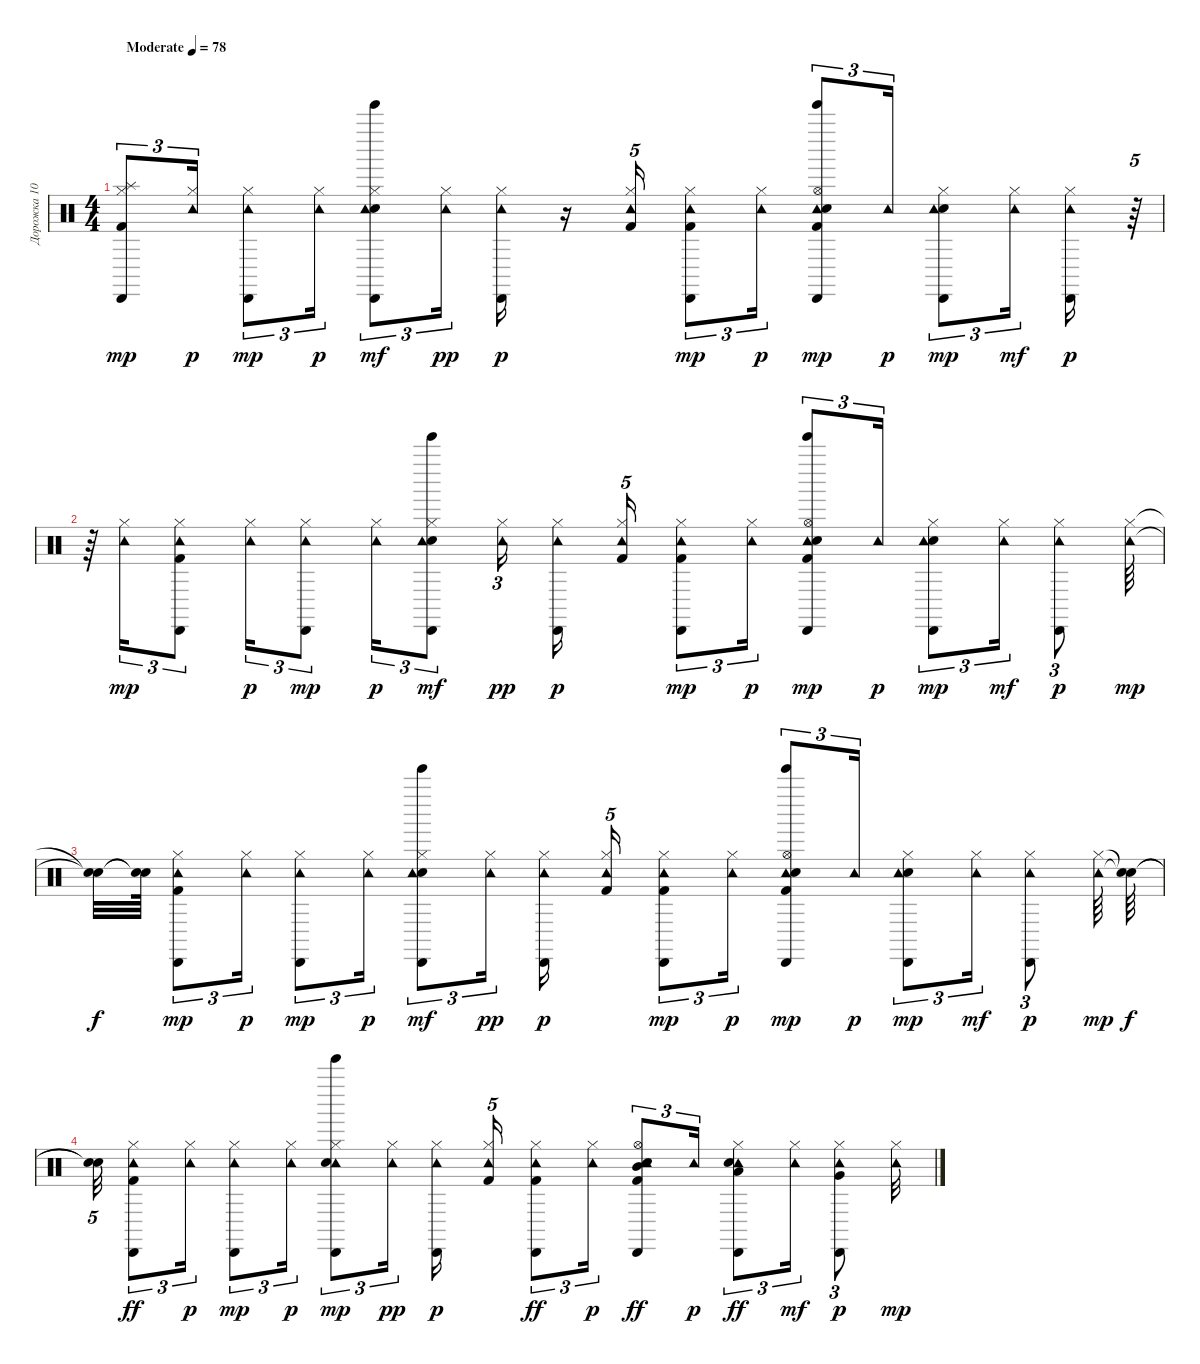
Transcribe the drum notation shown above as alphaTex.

\track ("Дорожка 10" "Дорожка 10") {instrument percussion}
\staff
\articulation defaults
\ts (4 4)
\tempo (78 "Moderate")
\clef neutral
\ks c
("Kick (hit) 2" "Splash (hit)" "Hi-Hat (closed)" "Cabasa (hit)").8{tu (3 2) dy mp} ("Hi-Hat (closed)" "Tambourine (hit)").16{tu (3 2) dy p} ("Hi-Hat (closed)" "Cabasa (hit)" "Tambourine (hit)").8{tu (3 2) dy mp} ("Hi-Hat (closed)" "Tambourine (hit)").16{tu (3 2) dy p} ("Snare (hit) 2" "Hi-Hat (closed)" "Tinkle Bell (hit)" "Cabasa (hit)" "Tambourine (hit)").8{tu (3 2) dy mf} ("Hi-Hat (closed)" "Tambourine (hit)").16{tu (3 2) dy pp} ("Hi-Hat (closed)" "Cabasa (hit)" "Tambourine (hit)").16{dy p} r.16 ("Kick (hit) 2" "Hi-Hat (closed)" "Tambourine (hit)").16{tu (5 4)} ("Kick (hit) 2" "Hi-Hat (closed)" "Cabasa (hit)" "Tambourine (hit)").8{tu (3 2) dy mp} ("Hi-Hat (closed)" "Tambourine (hit)").16{tu (3 2) dy p} ("Kick (hit) 2" "Hi-Hat (open)" "Cabasa (hit)" "Tambourine (hit)" "Electric Snare (hit)" "Tinkle Bell (hit)").8{tu (3 2) dy mp} "Tambourine (hit)".16{tu (3 2) dy p} ("Snare (hit) 2" "Hi-Hat (closed)" "Cabasa (hit)" "Tambourine (hit)").8{tu (3 2) dy mp} ("Hi-Hat (closed)" "Tambourine (hit)").16{tu (3 2) dy mf} ("Hi-Hat (closed)" "Cabasa (hit)" "Tambourine (hit)").16{dy p} r.64{tu (5 4)} |
r.64 ("Hi-Hat (closed)" "Tambourine (hit)").16{tu (3 2) dy mp} ("Hi-Hat (closed)" "Kick (hit) 2" "Cabasa (hit)" "Tambourine (hit)").8{tu (3 2)} ("Hi-Hat (closed)" "Tambourine (hit)").16{tu (3 2) dy p} ("Hi-Hat (closed)" "Cabasa (hit)" "Tambourine (hit)").8{tu (3 2) dy mp} ("Hi-Hat (closed)" "Tambourine (hit)").16{tu (3 2) dy p} ("Hi-Hat (closed)" "Snare (hit) 2" "Tinkle Bell (hit)" "Cabasa (hit)" "Tambourine (hit)").8{tu (3 2) dy mf} ("Hi-Hat (closed)" "Tambourine (hit)").16{tu (3 2) dy pp beam splitsecondary} ("Hi-Hat (closed)" "Cabasa (hit)" "Tambourine (hit)").16{dy p} ("Hi-Hat (closed)" "Kick (hit) 2" "Tambourine (hit)").16{tu (5 4)} ("Hi-Hat (closed)" "Kick (hit) 2" "Cabasa (hit)" "Tambourine (hit)").8{tu (3 2) dy mp} ("Hi-Hat (closed)" "Tambourine (hit)").16{tu (3 2) dy p} ("Kick (hit) 2" "Hi-Hat (open)" "Cabasa (hit)" "Tambourine (hit)" "Electric Snare (hit)" "Tinkle Bell (hit)").8{tu (3 2) dy mp} "Tambourine (hit)".16{tu (3 2) dy p} ("Hi-Hat (closed)" "Snare (hit) 2" "Cabasa (hit)" "Tambourine (hit)").8{tu (3 2) dy mp} ("Hi-Hat (closed)" "Tambourine (hit)").16{tu (3 2) dy mf} ("Hi-Hat (closed)" "Cabasa (hit)" "Tambourine (hit)").8{tu (3 2) dy p} ("Hi-Hat (closed)" "Tambourine (hit)").64{dy mp} |
("Snare (hit)"{t} "Snare (hit)"{t}).32{dy f} ("Snare (hit)"{t} "Snare (hit)"{t}).64 ("Kick (hit) 2" "Hi-Hat (closed)" "Cabasa (hit)" "Tambourine (hit)").8{tu (3 2) dy mp} ("Hi-Hat (closed)" "Tambourine (hit)").16{tu (3 2) dy p} ("Hi-Hat (closed)" "Cabasa (hit)" "Tambourine (hit)").8{tu (3 2) dy mp} ("Hi-Hat (closed)" "Tambourine (hit)").16{tu (3 2) dy p} ("Snare (hit) 2" "Hi-Hat (closed)" "Tinkle Bell (hit)" "Cabasa (hit)" "Tambourine (hit)").8{tu (3 2) dy mf} ("Hi-Hat (closed)" "Tambourine (hit)").16{tu (3 2) dy pp beam splitsecondary} ("Hi-Hat (closed)" "Cabasa (hit)" "Tambourine (hit)").16{dy p} ("Kick (hit) 2" "Hi-Hat (closed)" "Tambourine (hit)").16{tu (5 4)} ("Kick (hit) 2" "Hi-Hat (closed)" "Cabasa (hit)" "Tambourine (hit)").8{tu (3 2) dy mp} ("Hi-Hat (closed)" "Tambourine (hit)").16{tu (3 2) dy p} ("Kick (hit) 2" "Hi-Hat (open)" "Cabasa (hit)" "Tambourine (hit)" "Electric Snare (hit)" "Tinkle Bell (hit)").8{tu (3 2) dy mp} "Tambourine (hit)".16{tu (3 2) dy p} ("Snare (hit) 2" "Hi-Hat (closed)" "Cabasa (hit)" "Tambourine (hit)").8{tu (3 2) dy mp} ("Hi-Hat (closed)" "Tambourine (hit)").16{tu (3 2) dy mf} ("Hi-Hat (closed)" "Cabasa (hit)" "Tambourine (hit)").8{tu (3 2) dy p} ("Hi-Hat (closed)" "Tambourine (hit)").64{dy mp} ("Snare (hit)"{t} "Snare (hit)"{t}).64{dy f} |
("Snare (hit)"{t} "Snare (hit)"{t}).32{tu (5 4)} ("Hi-Hat (closed)" "Cabasa (hit)" "Tambourine (hit)" "Kick (hit) 2").8{tu (3 2) dy ff} ("Hi-Hat (closed)" "Tambourine (hit)").16{tu (3 2) dy p} ("Hi-Hat (closed)" "Cabasa (hit)" "Tambourine (hit)").8{tu (3 2) dy mp} ("Hi-Hat (closed)" "Tambourine (hit)").16{tu (3 2) dy p} ("Hi-Hat (closed)" "Cabasa (hit)" "Tambourine (hit)" "Snare (hit) 2" "Tinkle Bell (hit)").8{tu (3 2) dy mp} ("Hi-Hat (closed)" "Tambourine (hit)").16{tu (3 2) dy pp beam splitsecondary} ("Hi-Hat (closed)" "Cabasa (hit)" "Tambourine (hit)").16{dy p} ("Hi-Hat (closed)" "Tambourine (hit)" "Kick (hit) 2").16{tu (5 4)} ("Hi-Hat (closed)" "Cabasa (hit)" "Tambourine (hit)" "Kick (hit) 2").8{tu (3 2) dy ff} ("Hi-Hat (closed)" "Tambourine (hit)").16{tu (3 2) dy p} ("Mid Tom (hit)" "Cabasa (hit)" "Tambourine (hit)" "Electric Snare (hit)" "Kick (hit) 2" "Hi-Hat (open)").8{tu (3 2) dy ff} "Tambourine (hit)".16{tu (3 2) dy p} ("Low Tom (hit)" "Hi-Hat (closed)" "Cabasa (hit)" "Tambourine (hit)" "Snare (hit) 2").8{tu (3 2) dy ff} ("Hi-Hat (closed)" "Tambourine (hit)").16{tu (3 2) dy mf} ("Very Low Tom (hit)" "Hi-Hat (closed)" "Cabasa (hit)" "Tambourine (hit)").8{tu (3 2) dy p} ("Hi-Hat (closed)" "Tambourine (hit)").32{dy mp}
